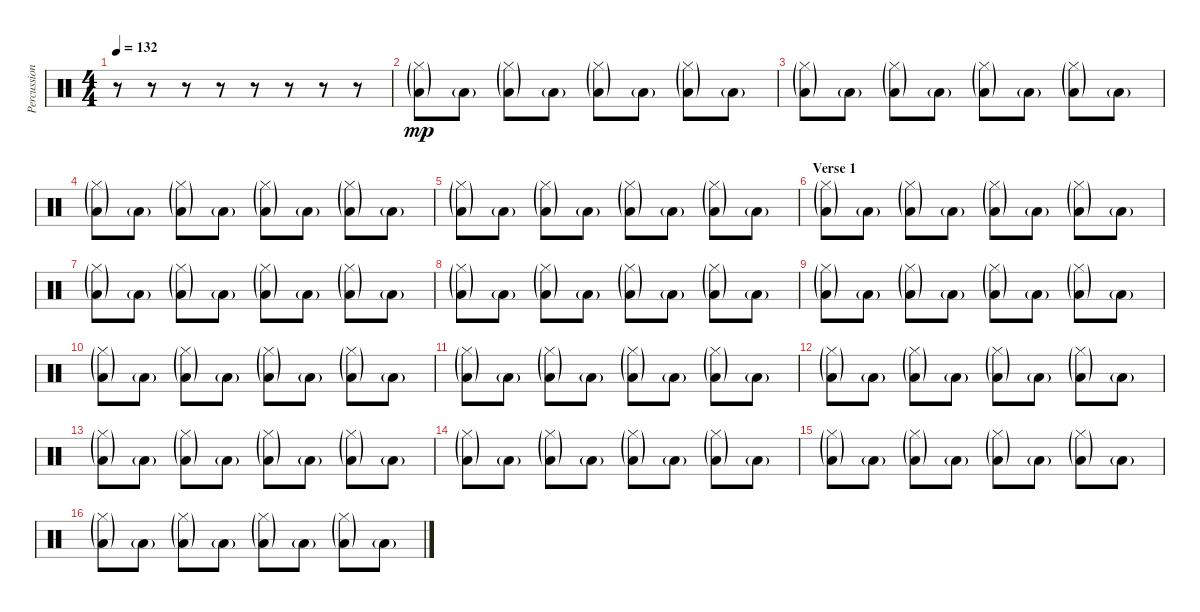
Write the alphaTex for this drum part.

\track ("Percussions" "Percussion") {instrument percussion}
\staff {score}
\articulation defaults
\ts (4 4)
\tempo 132
\clef neutral
\ks c
r.8{dy mp} r.8 r.8 r.8 r.8 r.8 r.8 r.8 |
("Hi-Hat (closed)"{g} "Low Floor Tom (hit)"{g}).8 "Low Floor Tom (hit)"{g}.8 ("Hi-Hat (closed)"{g} "Low Floor Tom (hit)"{g}).8 "Low Floor Tom (hit)"{g}.8 ("Hi-Hat (closed)"{g} "Low Floor Tom (hit)"{g}).8 "Low Floor Tom (hit)"{g}.8 ("Hi-Hat (closed)"{g} "Low Floor Tom (hit)"{g}).8 "Low Floor Tom (hit)"{g}.8 |
("Hi-Hat (closed)"{g} "Low Floor Tom (hit)"{g}).8 "Low Floor Tom (hit)"{g}.8 ("Hi-Hat (closed)"{g} "Low Floor Tom (hit)"{g}).8 "Low Floor Tom (hit)"{g}.8 ("Hi-Hat (closed)"{g} "Low Floor Tom (hit)"{g}).8 "Low Floor Tom (hit)"{g}.8 ("Hi-Hat (closed)"{g} "Low Floor Tom (hit)"{g}).8 "Low Floor Tom (hit)"{g}.8 |
("Hi-Hat (closed)"{g} "Low Floor Tom (hit)"{g}).8 "Low Floor Tom (hit)"{g}.8 ("Hi-Hat (closed)"{g} "Low Floor Tom (hit)"{g}).8 "Low Floor Tom (hit)"{g}.8 ("Hi-Hat (closed)"{g} "Low Floor Tom (hit)"{g}).8 "Low Floor Tom (hit)"{g}.8 ("Hi-Hat (closed)"{g} "Low Floor Tom (hit)"{g}).8 "Low Floor Tom (hit)"{g}.8 |
("Hi-Hat (closed)"{g} "Low Floor Tom (hit)"{g}).8 "Low Floor Tom (hit)"{g}.8 ("Hi-Hat (closed)"{g} "Low Floor Tom (hit)"{g}).8 "Low Floor Tom (hit)"{g}.8 ("Hi-Hat (closed)"{g} "Low Floor Tom (hit)"{g}).8 "Low Floor Tom (hit)"{g}.8 ("Hi-Hat (closed)"{g} "Low Floor Tom (hit)"{g}).8 "Low Floor Tom (hit)"{g}.8 |
\section ("" "Verse 1")
("Hi-Hat (closed)"{g} "Low Floor Tom (hit)"{g}).8 "Low Floor Tom (hit)"{g}.8 ("Hi-Hat (closed)"{g} "Low Floor Tom (hit)"{g}).8 "Low Floor Tom (hit)"{g}.8 ("Hi-Hat (closed)"{g} "Low Floor Tom (hit)"{g}).8 "Low Floor Tom (hit)"{g}.8 ("Hi-Hat (closed)"{g} "Low Floor Tom (hit)"{g}).8 "Low Floor Tom (hit)"{g}.8 |
("Hi-Hat (closed)"{g} "Low Floor Tom (hit)"{g}).8 "Low Floor Tom (hit)"{g}.8 ("Hi-Hat (closed)"{g} "Low Floor Tom (hit)"{g}).8 "Low Floor Tom (hit)"{g}.8 ("Hi-Hat (closed)"{g} "Low Floor Tom (hit)"{g}).8 "Low Floor Tom (hit)"{g}.8 ("Hi-Hat (closed)"{g} "Low Floor Tom (hit)"{g}).8 "Low Floor Tom (hit)"{g}.8 |
("Hi-Hat (closed)"{g} "Low Floor Tom (hit)"{g}).8 "Low Floor Tom (hit)"{g}.8 ("Hi-Hat (closed)"{g} "Low Floor Tom (hit)"{g}).8 "Low Floor Tom (hit)"{g}.8 ("Hi-Hat (closed)"{g} "Low Floor Tom (hit)"{g}).8 "Low Floor Tom (hit)"{g}.8 ("Hi-Hat (closed)"{g} "Low Floor Tom (hit)"{g}).8 "Low Floor Tom (hit)"{g}.8 |
("Hi-Hat (closed)"{g} "Low Floor Tom (hit)"{g}).8 "Low Floor Tom (hit)"{g}.8 ("Hi-Hat (closed)"{g} "Low Floor Tom (hit)"{g}).8 "Low Floor Tom (hit)"{g}.8 ("Hi-Hat (closed)"{g} "Low Floor Tom (hit)"{g}).8 "Low Floor Tom (hit)"{g}.8 ("Hi-Hat (closed)"{g} "Low Floor Tom (hit)"{g}).8 "Low Floor Tom (hit)"{g}.8 |
("Hi-Hat (closed)"{g} "Low Floor Tom (hit)"{g}).8 "Low Floor Tom (hit)"{g}.8 ("Hi-Hat (closed)"{g} "Low Floor Tom (hit)"{g}).8 "Low Floor Tom (hit)"{g}.8 ("Hi-Hat (closed)"{g} "Low Floor Tom (hit)"{g}).8 "Low Floor Tom (hit)"{g}.8 ("Hi-Hat (closed)"{g} "Low Floor Tom (hit)"{g}).8 "Low Floor Tom (hit)"{g}.8 |
("Hi-Hat (closed)"{g} "Low Floor Tom (hit)"{g}).8 "Low Floor Tom (hit)"{g}.8 ("Hi-Hat (closed)"{g} "Low Floor Tom (hit)"{g}).8 "Low Floor Tom (hit)"{g}.8 ("Hi-Hat (closed)"{g} "Low Floor Tom (hit)"{g}).8 "Low Floor Tom (hit)"{g}.8 ("Hi-Hat (closed)"{g} "Low Floor Tom (hit)"{g}).8 "Low Floor Tom (hit)"{g}.8 |
("Hi-Hat (closed)"{g} "Low Floor Tom (hit)"{g}).8 "Low Floor Tom (hit)"{g}.8 ("Hi-Hat (closed)"{g} "Low Floor Tom (hit)"{g}).8 "Low Floor Tom (hit)"{g}.8 ("Hi-Hat (closed)"{g} "Low Floor Tom (hit)"{g}).8 "Low Floor Tom (hit)"{g}.8 ("Hi-Hat (closed)"{g} "Low Floor Tom (hit)"{g}).8 "Low Floor Tom (hit)"{g}.8 |
("Hi-Hat (closed)"{g} "Low Floor Tom (hit)"{g}).8 "Low Floor Tom (hit)"{g}.8 ("Hi-Hat (closed)"{g} "Low Floor Tom (hit)"{g}).8 "Low Floor Tom (hit)"{g}.8 ("Hi-Hat (closed)"{g} "Low Floor Tom (hit)"{g}).8 "Low Floor Tom (hit)"{g}.8 ("Hi-Hat (closed)"{g} "Low Floor Tom (hit)"{g}).8 "Low Floor Tom (hit)"{g}.8 |
("Hi-Hat (closed)"{g} "Low Floor Tom (hit)"{g}).8 "Low Floor Tom (hit)"{g}.8 ("Hi-Hat (closed)"{g} "Low Floor Tom (hit)"{g}).8 "Low Floor Tom (hit)"{g}.8 ("Hi-Hat (closed)"{g} "Low Floor Tom (hit)"{g}).8 "Low Floor Tom (hit)"{g}.8 ("Hi-Hat (closed)"{g} "Low Floor Tom (hit)"{g}).8 "Low Floor Tom (hit)"{g}.8 |
("Hi-Hat (closed)"{g} "Low Floor Tom (hit)"{g}).8 "Low Floor Tom (hit)"{g}.8 ("Hi-Hat (closed)"{g} "Low Floor Tom (hit)"{g}).8 "Low Floor Tom (hit)"{g}.8 ("Hi-Hat (closed)"{g} "Low Floor Tom (hit)"{g}).8 "Low Floor Tom (hit)"{g}.8 ("Hi-Hat (closed)"{g} "Low Floor Tom (hit)"{g}).8 "Low Floor Tom (hit)"{g}.8 |
("Hi-Hat (closed)"{g} "Low Floor Tom (hit)"{g}).8 "Low Floor Tom (hit)"{g}.8 ("Hi-Hat (closed)"{g} "Low Floor Tom (hit)"{g}).8 "Low Floor Tom (hit)"{g}.8 ("Hi-Hat (closed)"{g} "Low Floor Tom (hit)"{g}).8 "Low Floor Tom (hit)"{g}.8 ("Hi-Hat (closed)"{g} "Low Floor Tom (hit)"{g}).8 "Low Floor Tom (hit)"{g}.8
